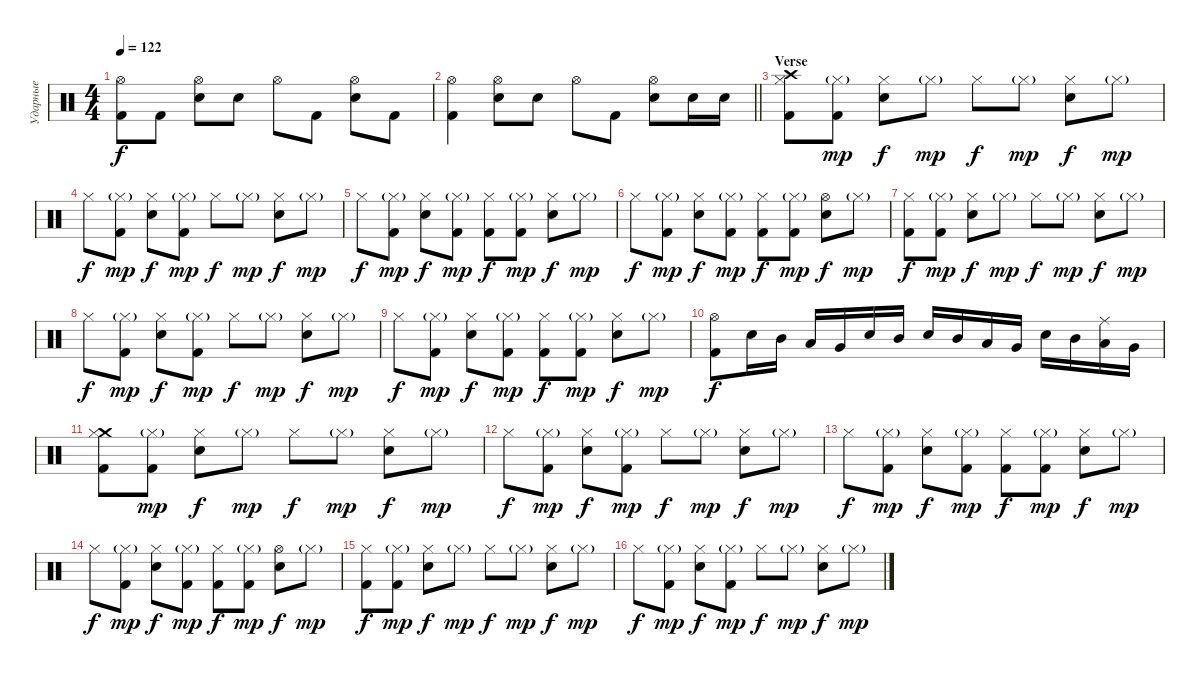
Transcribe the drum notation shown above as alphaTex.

\track ("Ударные" "Ударные") {instrument percussion}
\staff {score}
\articulation defaults
\ts (4 4)
\tempo 122
\clef neutral
\ks c
("Hi-Hat (open)" "Kick (hit) 2").8{dy f} "Kick (hit) 2".8 ("Hi-Hat (open)" "Electric Snare (hit)").8 "Electric Snare (hit)".8 "Hi-Hat (open)".8 "Kick (hit) 2".8 ("Hi-Hat (open)" "Electric Snare (hit)").8 "Kick (hit) 2".8 |
\barLineRight lightlight
("Hi-Hat (open)" "Kick (hit) 2").4 ("Hi-Hat (open)" "Electric Snare (hit)").8 "Electric Snare (hit)".8 "Hi-Hat (open)".8 "Kick (hit) 2".8 ("Hi-Hat (open)" "Electric Snare (hit)").8 "Electric Snare (hit)".16 "Electric Snare (hit)".16 |
\section ("" "Verse")
("Crash high (hit)" "Hi-Hat (closed)" "Kick (hit) 2").8 ("Hi-Hat (closed)"{g} "Kick (hit) 2").8{dy mp} ("Hi-Hat (closed)" "Electric Snare (hit)").8{dy f} "Hi-Hat (closed)"{g}.8{dy mp} "Hi-Hat (closed)".8{dy f} "Hi-Hat (closed)"{g}.8{dy mp} ("Hi-Hat (closed)" "Electric Snare (hit)").8{dy f} "Hi-Hat (closed)"{g}.8{dy mp} |
"Hi-Hat (closed)".8{dy f} ("Hi-Hat (closed)"{g} "Kick (hit) 2").8{dy mp} ("Hi-Hat (closed)" "Electric Snare (hit)").8{dy f} ("Hi-Hat (closed)"{g} "Kick (hit) 2").8{dy mp} "Hi-Hat (closed)".8{dy f} "Hi-Hat (closed)"{g}.8{dy mp} ("Hi-Hat (closed)" "Electric Snare (hit)").8{dy f} "Hi-Hat (closed)"{g}.8{dy mp} |
"Hi-Hat (closed)".8{dy f} ("Hi-Hat (closed)"{g} "Kick (hit) 2").8{dy mp} ("Hi-Hat (closed)" "Electric Snare (hit)").8{dy f} ("Hi-Hat (closed)"{g} "Kick (hit) 2").8{dy mp} ("Hi-Hat (closed)" "Kick (hit) 2").8{dy f} ("Hi-Hat (closed)"{g} "Kick (hit) 2").8{dy mp} ("Hi-Hat (closed)" "Electric Snare (hit)").8{dy f} "Hi-Hat (closed)"{g}.8{dy mp} |
"Hi-Hat (closed)".8{dy f} ("Hi-Hat (closed)"{g} "Kick (hit) 2").8{dy mp} ("Hi-Hat (closed)" "Electric Snare (hit)").8{dy f} ("Hi-Hat (closed)"{g} "Kick (hit) 2").8{dy mp} ("Hi-Hat (closed)" "Kick (hit) 2").8{dy f} ("Hi-Hat (closed)"{g} "Kick (hit) 2").8{dy mp} ("Hi-Hat (open)" "Electric Snare (hit)").8{dy f} "Hi-Hat (closed)"{g}.8{dy mp} |
("Hi-Hat (closed)" "Kick (hit) 2").8{dy f} ("Hi-Hat (closed)"{g} "Kick (hit) 2").8{dy mp} ("Hi-Hat (closed)" "Electric Snare (hit)").8{dy f} "Hi-Hat (closed)"{g}.8{dy mp} "Hi-Hat (closed)".8{dy f} "Hi-Hat (closed)"{g}.8{dy mp} ("Hi-Hat (closed)" "Electric Snare (hit)").8{dy f} "Hi-Hat (closed)"{g}.8{dy mp} |
"Hi-Hat (closed)".8{dy f} ("Hi-Hat (closed)"{g} "Kick (hit) 2").8{dy mp} ("Hi-Hat (closed)" "Electric Snare (hit)").8{dy f} ("Hi-Hat (closed)"{g} "Kick (hit) 2").8{dy mp} "Hi-Hat (closed)".8{dy f} "Hi-Hat (closed)"{g}.8{dy mp} ("Hi-Hat (closed)" "Electric Snare (hit)").8{dy f} "Hi-Hat (closed)"{g}.8{dy mp} |
"Hi-Hat (closed)".8{dy f} ("Hi-Hat (closed)"{g} "Kick (hit) 2").8{dy mp} ("Hi-Hat (closed)" "Electric Snare (hit)").8{dy f} ("Hi-Hat (closed)"{g} "Kick (hit) 2").8{dy mp} ("Hi-Hat (closed)" "Kick (hit) 2").8{dy f} ("Hi-Hat (closed)"{g} "Kick (hit) 2").8{dy mp} ("Hi-Hat (closed)" "Electric Snare (hit)").8{dy f} "Hi-Hat (closed)"{g}.8{dy mp} |
("Hi-Hat (open)" "Kick (hit) 2").8{dy f} "Electric Snare (hit)".16 "Mid Tom (hit)".16 "Low Tom (hit)".16 "Very Low Tom (hit)".16 "Electric Snare (hit)".16 "Mid Tom (hit)".16 "Electric Snare (hit)".16 "Mid Tom (hit)".16 "Low Tom (hit)".16 "Very Low Tom (hit)".16 "Electric Snare (hit)".16 "Mid Tom (hit)".16 ("Ride (middle)" "Low Tom (hit)").16 "Very Low Tom (hit)".16 |
("Crash medium (hit)" "Hi-Hat (closed)" "Kick (hit) 2").8 ("Hi-Hat (closed)"{g} "Kick (hit) 2").8{dy mp} ("Hi-Hat (closed)" "Electric Snare (hit)").8{dy f} "Hi-Hat (closed)"{g}.8{dy mp} "Hi-Hat (closed)".8{dy f} "Hi-Hat (closed)"{g}.8{dy mp} ("Hi-Hat (closed)" "Electric Snare (hit)").8{dy f} "Hi-Hat (closed)"{g}.8{dy mp} |
"Hi-Hat (closed)".8{dy f} ("Hi-Hat (closed)"{g} "Kick (hit) 2").8{dy mp} ("Hi-Hat (closed)" "Electric Snare (hit)").8{dy f} ("Hi-Hat (closed)"{g} "Kick (hit) 2").8{dy mp} "Hi-Hat (closed)".8{dy f} "Hi-Hat (closed)"{g}.8{dy mp} ("Hi-Hat (closed)" "Electric Snare (hit)").8{dy f} "Hi-Hat (closed)"{g}.8{dy mp} |
"Hi-Hat (closed)".8{dy f} ("Hi-Hat (closed)"{g} "Kick (hit) 2").8{dy mp} ("Hi-Hat (closed)" "Electric Snare (hit)").8{dy f} ("Hi-Hat (closed)"{g} "Kick (hit) 2").8{dy mp} ("Hi-Hat (closed)" "Kick (hit) 2").8{dy f} ("Hi-Hat (closed)"{g} "Kick (hit) 2").8{dy mp} ("Hi-Hat (closed)" "Electric Snare (hit)").8{dy f} "Hi-Hat (closed)"{g}.8{dy mp} |
"Hi-Hat (closed)".8{dy f} ("Hi-Hat (closed)"{g} "Kick (hit) 2").8{dy mp} ("Hi-Hat (closed)" "Electric Snare (hit)").8{dy f} ("Hi-Hat (closed)"{g} "Kick (hit) 2").8{dy mp} ("Hi-Hat (closed)" "Kick (hit) 2").8{dy f} ("Hi-Hat (closed)"{g} "Kick (hit) 2").8{dy mp} ("Hi-Hat (open)" "Electric Snare (hit)").8{dy f} "Hi-Hat (closed)"{g}.8{dy mp} |
("Hi-Hat (closed)" "Kick (hit) 2").8{dy f} ("Hi-Hat (closed)"{g} "Kick (hit) 2").8{dy mp} ("Hi-Hat (closed)" "Electric Snare (hit)").8{dy f} "Hi-Hat (closed)"{g}.8{dy mp} "Hi-Hat (closed)".8{dy f} "Hi-Hat (closed)"{g}.8{dy mp} ("Hi-Hat (closed)" "Electric Snare (hit)").8{dy f} "Hi-Hat (closed)"{g}.8{dy mp} |
"Hi-Hat (closed)".8{dy f} ("Hi-Hat (closed)"{g} "Kick (hit) 2").8{dy mp} ("Hi-Hat (closed)" "Electric Snare (hit)").8{dy f} ("Hi-Hat (closed)"{g} "Kick (hit) 2").8{dy mp} "Hi-Hat (closed)".8{dy f} "Hi-Hat (closed)"{g}.8{dy mp} ("Hi-Hat (closed)" "Electric Snare (hit)").8{dy f} "Hi-Hat (closed)"{g}.8{dy mp}
